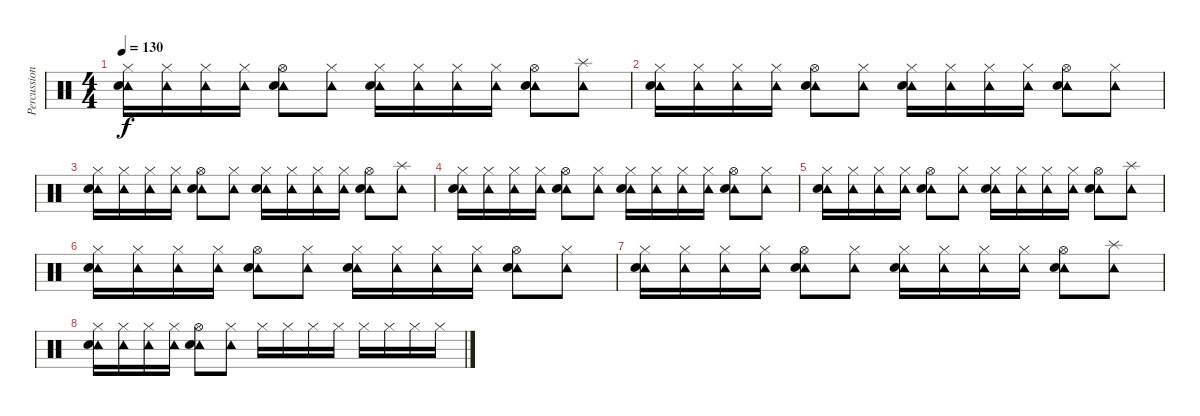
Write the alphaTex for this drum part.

\track ("Percussion" "Percussion") {instrument percussion}
\staff {score}
\articulation defaults
\ts (4 4)
\tempo 130
\clef neutral
\ks c
("Hi-Hat (closed)" "Tambourine (hit)" "Electric Snare (hit)").16{dy f volume 16} ("Hi-Hat (closed)" "Tambourine (hit)").16 ("Hi-Hat (closed)" "Tambourine (hit)").16 ("Hi-Hat (closed)" "Tambourine (hit)").16 ("Hi-Hat (open)" "Tambourine (hit)" "Electric Snare (hit)").8 ("Hi-Hat (closed)" "Tambourine (hit)").8 ("Hi-Hat (closed)" "Tambourine (hit)" "Electric Snare (hit)").16 ("Hi-Hat (closed)" "Tambourine (hit)").16 ("Hi-Hat (closed)" "Tambourine (hit)").16 ("Hi-Hat (closed)" "Tambourine (hit)").16 ("Hi-Hat (open)" "Tambourine (hit)" "Electric Snare (hit)").8 ("Splash (hit)" "Tambourine (hit)").8 |
("Hi-Hat (closed)" "Tambourine (hit)" "Electric Snare (hit)").16 ("Hi-Hat (closed)" "Tambourine (hit)").16 ("Hi-Hat (closed)" "Tambourine (hit)").16 ("Hi-Hat (closed)" "Tambourine (hit)").16 ("Hi-Hat (open)" "Tambourine (hit)" "Electric Snare (hit)").8 ("Hi-Hat (closed)" "Tambourine (hit)").8 ("Hi-Hat (closed)" "Tambourine (hit)" "Electric Snare (hit)").16 ("Hi-Hat (closed)" "Tambourine (hit)").16 ("Hi-Hat (closed)" "Tambourine (hit)").16 ("Hi-Hat (closed)" "Tambourine (hit)").16 ("Hi-Hat (open)" "Tambourine (hit)" "Electric Snare (hit)").8 ("Hi-Hat (closed)" "Tambourine (hit)").8 |
("Hi-Hat (closed)" "Tambourine (hit)" "Electric Snare (hit)").16{volume 16} ("Hi-Hat (closed)" "Tambourine (hit)").16 ("Hi-Hat (closed)" "Tambourine (hit)").16 ("Hi-Hat (closed)" "Tambourine (hit)").16 ("Hi-Hat (open)" "Tambourine (hit)" "Electric Snare (hit)").8 ("Hi-Hat (closed)" "Tambourine (hit)").8 ("Hi-Hat (closed)" "Tambourine (hit)" "Electric Snare (hit)").16 ("Hi-Hat (closed)" "Tambourine (hit)").16 ("Hi-Hat (closed)" "Tambourine (hit)").16 ("Hi-Hat (closed)" "Tambourine (hit)").16 ("Hi-Hat (open)" "Tambourine (hit)" "Electric Snare (hit)").8 ("Splash (hit)" "Tambourine (hit)").8 |
("Hi-Hat (closed)" "Tambourine (hit)" "Electric Snare (hit)").16 ("Hi-Hat (closed)" "Tambourine (hit)").16 ("Hi-Hat (closed)" "Tambourine (hit)").16 ("Hi-Hat (closed)" "Tambourine (hit)").16 ("Hi-Hat (open)" "Tambourine (hit)" "Electric Snare (hit)").8 ("Hi-Hat (closed)" "Tambourine (hit)").8 ("Hi-Hat (closed)" "Tambourine (hit)" "Electric Snare (hit)").16 ("Hi-Hat (closed)" "Tambourine (hit)").16 ("Hi-Hat (closed)" "Tambourine (hit)").16 ("Hi-Hat (closed)" "Tambourine (hit)").16 ("Hi-Hat (open)" "Tambourine (hit)" "Electric Snare (hit)").8 ("Hi-Hat (closed)" "Tambourine (hit)").8 |
("Hi-Hat (closed)" "Tambourine (hit)" "Electric Snare (hit)").16{volume 16} ("Hi-Hat (closed)" "Tambourine (hit)").16 ("Hi-Hat (closed)" "Tambourine (hit)").16 ("Hi-Hat (closed)" "Tambourine (hit)").16 ("Hi-Hat (open)" "Tambourine (hit)" "Electric Snare (hit)").8 ("Hi-Hat (closed)" "Tambourine (hit)").8 ("Hi-Hat (closed)" "Tambourine (hit)" "Electric Snare (hit)").16 ("Hi-Hat (closed)" "Tambourine (hit)").16 ("Hi-Hat (closed)" "Tambourine (hit)").16 ("Hi-Hat (closed)" "Tambourine (hit)").16 ("Hi-Hat (open)" "Tambourine (hit)" "Electric Snare (hit)").8 ("Splash (hit)" "Tambourine (hit)").8 |
("Hi-Hat (closed)" "Tambourine (hit)" "Electric Snare (hit)").16 ("Hi-Hat (closed)" "Tambourine (hit)").16 ("Hi-Hat (closed)" "Tambourine (hit)").16 ("Hi-Hat (closed)" "Tambourine (hit)").16 ("Hi-Hat (open)" "Tambourine (hit)" "Electric Snare (hit)").8 ("Hi-Hat (closed)" "Tambourine (hit)").8 ("Hi-Hat (closed)" "Tambourine (hit)" "Electric Snare (hit)").16 ("Hi-Hat (closed)" "Tambourine (hit)").16 ("Hi-Hat (closed)" "Tambourine (hit)").16 ("Hi-Hat (closed)" "Tambourine (hit)").16 ("Hi-Hat (open)" "Tambourine (hit)" "Electric Snare (hit)").8 ("Hi-Hat (closed)" "Tambourine (hit)").8 |
("Hi-Hat (closed)" "Tambourine (hit)" "Electric Snare (hit)").16 ("Hi-Hat (closed)" "Tambourine (hit)").16 ("Hi-Hat (closed)" "Tambourine (hit)").16 ("Hi-Hat (closed)" "Tambourine (hit)").16 ("Hi-Hat (open)" "Tambourine (hit)" "Electric Snare (hit)").8 ("Hi-Hat (closed)" "Tambourine (hit)").8 ("Hi-Hat (closed)" "Tambourine (hit)" "Electric Snare (hit)").16 ("Hi-Hat (closed)" "Tambourine (hit)").16 ("Hi-Hat (closed)" "Tambourine (hit)").16 ("Hi-Hat (closed)" "Tambourine (hit)").16 ("Hi-Hat (open)" "Tambourine (hit)" "Electric Snare (hit)").8 ("Splash (hit)" "Tambourine (hit)").8 |
("Hi-Hat (closed)" "Tambourine (hit)" "Electric Snare (hit)").16 ("Hi-Hat (closed)" "Tambourine (hit)").16 ("Hi-Hat (closed)" "Tambourine (hit)").16 ("Hi-Hat (closed)" "Tambourine (hit)").16 ("Hi-Hat (open)" "Tambourine (hit)" "Electric Snare (hit)").8 ("Hi-Hat (closed)" "Tambourine (hit)").8 "Hi-Hat (closed)".16 "Hi-Hat (closed)".16 "Hi-Hat (closed)".16 "Hi-Hat (closed)".16 "Hi-Hat (closed)".16 "Hi-Hat (closed)".16 "Hi-Hat (closed)".16 "Hi-Hat (closed)".16
